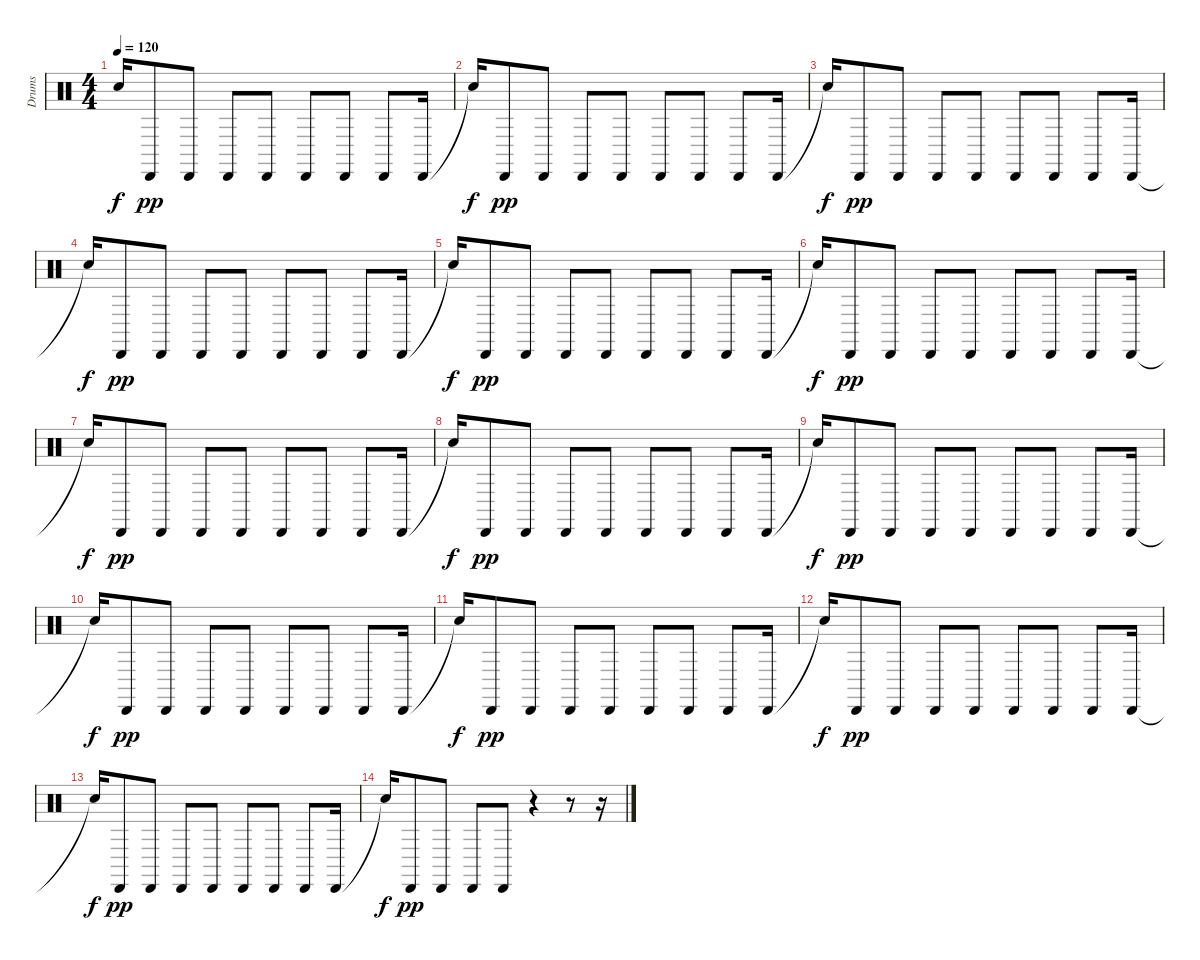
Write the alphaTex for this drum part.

\track ("Drums" "Drums") {instrument percussion}
\staff {score}
\articulation defaults
\ts (4 4)
\tempo 120
\clef neutral
\ks c "Snare (hit)"{t}.16{dy f} "Cabasa (hit)".8{dy pp} "Cabasa (hit)".8 "Cabasa (hit)".8 "Cabasa (hit)".8 "Cabasa (hit)".8 "Cabasa (hit)".8 "Cabasa (hit)".8 "Cabasa (hit)".16
|
"Snare (hit)"{t}.16{dy f} "Cabasa (hit)".8{dy pp} "Cabasa (hit)".8 "Cabasa (hit)".8 "Cabasa (hit)".8 "Cabasa (hit)".8 "Cabasa (hit)".8 "Cabasa (hit)".8 "Cabasa (hit)".16 |
"Snare (hit)"{t}.16{dy f} "Cabasa (hit)".8{dy pp} "Cabasa (hit)".8 "Cabasa (hit)".8 "Cabasa (hit)".8 "Cabasa (hit)".8 "Cabasa (hit)".8 "Cabasa (hit)".8 "Cabasa (hit)".16 |
"Snare (hit)"{t}.16{dy f} "Cabasa (hit)".8{dy pp} "Cabasa (hit)".8 "Cabasa (hit)".8 "Cabasa (hit)".8 "Cabasa (hit)".8 "Cabasa (hit)".8 "Cabasa (hit)".8 "Cabasa (hit)".16 |
"Snare (hit)"{t}.16{dy f} "Cabasa (hit)".8{dy pp} "Cabasa (hit)".8 "Cabasa (hit)".8 "Cabasa (hit)".8 "Cabasa (hit)".8 "Cabasa (hit)".8 "Cabasa (hit)".8 "Cabasa (hit)".16 |
"Snare (hit)"{t}.16{dy f} "Cabasa (hit)".8{dy pp} "Cabasa (hit)".8 "Cabasa (hit)".8 "Cabasa (hit)".8 "Cabasa (hit)".8 "Cabasa (hit)".8 "Cabasa (hit)".8 "Cabasa (hit)".16 |
"Snare (hit)"{t}.16{dy f} "Cabasa (hit)".8{dy pp} "Cabasa (hit)".8 "Cabasa (hit)".8 "Cabasa (hit)".8 "Cabasa (hit)".8 "Cabasa (hit)".8 "Cabasa (hit)".8 "Cabasa (hit)".16 |
"Snare (hit)"{t}.16{dy f} "Cabasa (hit)".8{dy pp} "Cabasa (hit)".8 "Cabasa (hit)".8 "Cabasa (hit)".8 "Cabasa (hit)".8 "Cabasa (hit)".8 "Cabasa (hit)".8 "Cabasa (hit)".16 |
"Snare (hit)"{t}.16{dy f} "Cabasa (hit)".8{dy pp} "Cabasa (hit)".8 "Cabasa (hit)".8 "Cabasa (hit)".8 "Cabasa (hit)".8 "Cabasa (hit)".8 "Cabasa (hit)".8 "Cabasa (hit)".16 |
"Snare (hit)"{t}.16{dy f} "Cabasa (hit)".8{dy pp} "Cabasa (hit)".8 "Cabasa (hit)".8 "Cabasa (hit)".8 "Cabasa (hit)".8 "Cabasa (hit)".8 "Cabasa (hit)".8 "Cabasa (hit)".16 |
"Snare (hit)"{t}.16{dy f} "Cabasa (hit)".8{dy pp} "Cabasa (hit)".8 "Cabasa (hit)".8 "Cabasa (hit)".8 "Cabasa (hit)".8 "Cabasa (hit)".8 "Cabasa (hit)".8 "Cabasa (hit)".16 |
"Snare (hit)"{t}.16{dy f} "Cabasa (hit)".8{dy pp} "Cabasa (hit)".8 "Cabasa (hit)".8 "Cabasa (hit)".8 "Cabasa (hit)".8 "Cabasa (hit)".8 "Cabasa (hit)".8 "Cabasa (hit)".16 |
"Snare (hit)"{t}.16{dy f} "Cabasa (hit)".8{dy pp} "Cabasa (hit)".8 "Cabasa (hit)".8 "Cabasa (hit)".8 "Cabasa (hit)".8 "Cabasa (hit)".8 "Cabasa (hit)".8 "Cabasa (hit)".16 |
"Snare (hit)"{t}.16{dy f} "Cabasa (hit)".8{dy pp} "Cabasa (hit)".8 "Cabasa (hit)".8 "Cabasa (hit)".8 r.4 r.8 r.16
